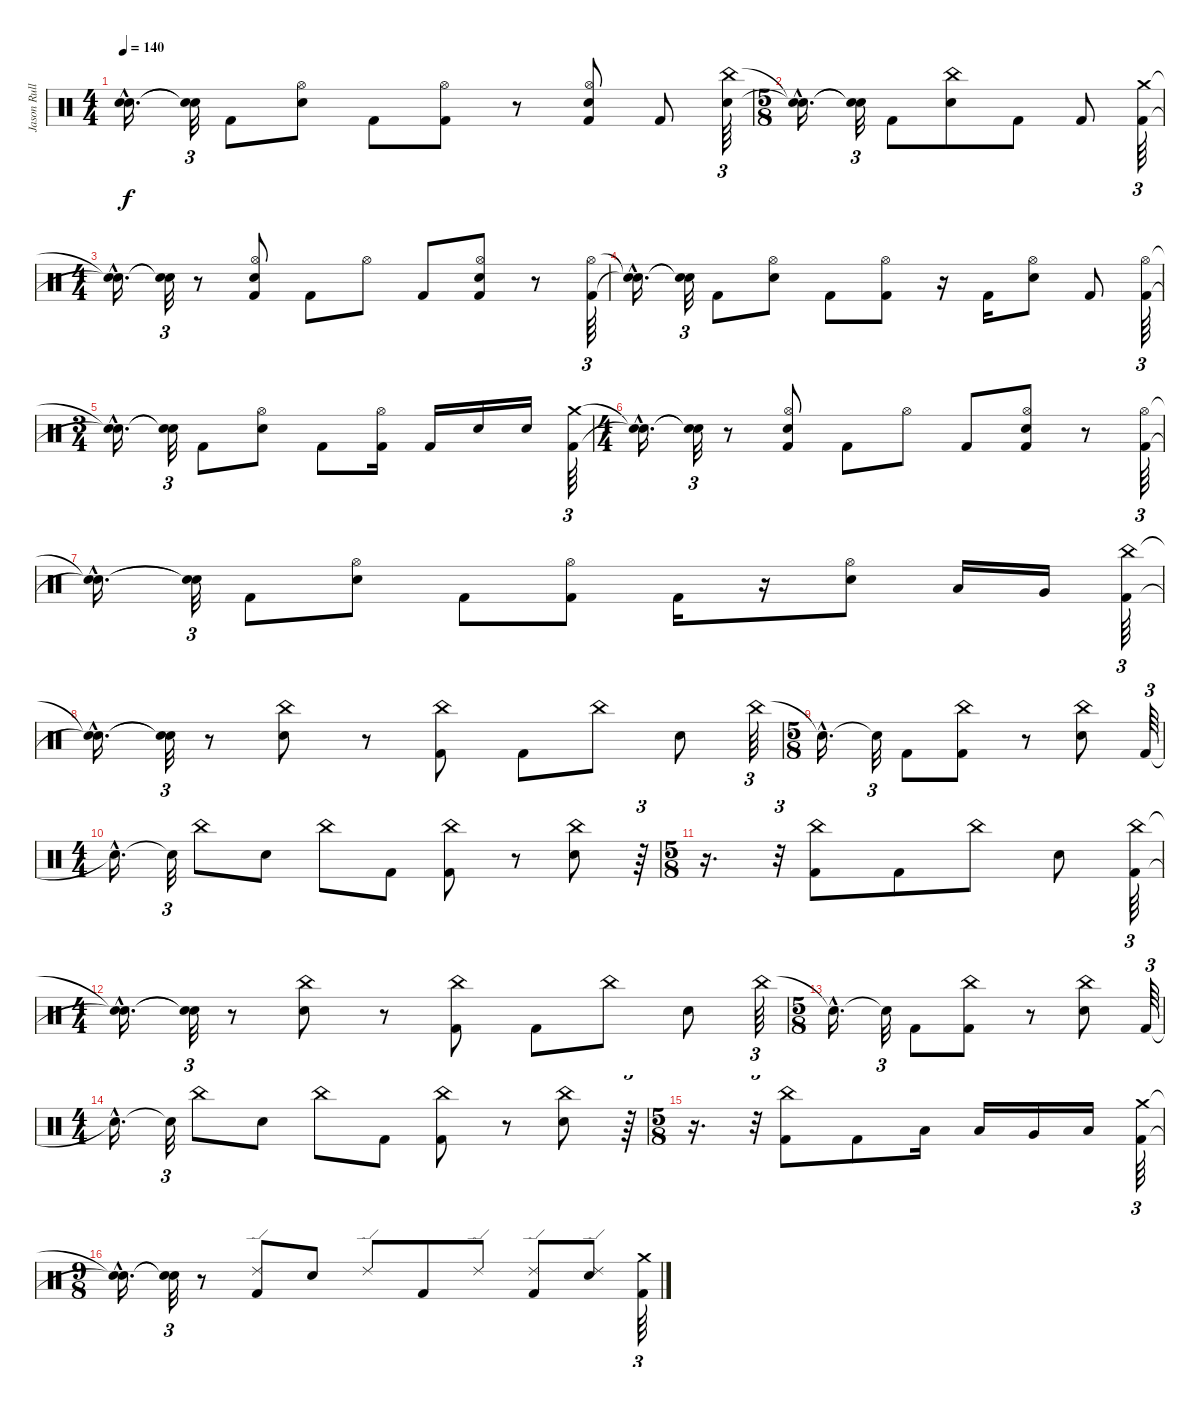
\track ("Jason Rullo" "Jason Rull") {instrument percussion}
\staff {score}
\articulation defaults
\ts (4 4)
\tempo 140
\clef neutral
\ks c
("Snare (hit)"{hac t} "Snare (hit)"{hac t}).16{d dy f} ("Snare (hit)"{t} "Snare (hit)"{t}).32{tu (3 2)} "Kick (hit) 2".8 ("Hi-Hat (open)" "Electric Snare (hit)").8 "Kick (hit) 2".8 ("Hi-Hat (open)" "Kick (hit) 2").8 r.8 ("Hi-Hat (open)" "Electric Snare (hit)" "Kick (hit) 2").8 "Kick (hit) 2".8 ("China (hit)" "Electric Snare (hit)").64{tu (3 2)} |
\ts (5 8)
("Snare (hit)"{hac t} "Snare (hit)"{hac t}).16{d} ("Snare (hit)"{t} "Snare (hit)"{t}).32{tu (3 2)} "Kick (hit) 2".8 ("China (hit)" "Electric Snare (hit)").8 "Kick (hit) 2".8 "Kick (hit) 2".8 ("Crash medium (hit)" "Kick (hit) 2").64{tu (3 2)} |
\ts (4 4)
("Snare (hit)"{hac t} "Snare (hit)"{hac t}).16{d} ("Snare (hit)"{t} "Snare (hit)"{t}).32{tu (3 2)} r.8 ("Hi-Hat (open)" "Electric Snare (hit)" "Kick (hit) 2").8 "Kick (hit) 2".8 "Hi-Hat (open)".8 "Kick (hit) 2".8 ("Hi-Hat (open)" "Kick (hit) 2" "Electric Snare (hit)").8 r.8 ("Hi-Hat (open)" "Kick (hit) 2").64{tu (3 2)} |
("Snare (hit)"{hac t} "Snare (hit)"{hac t}).16{d} ("Snare (hit)"{t} "Snare (hit)"{t}).32{tu (3 2)} "Kick (hit) 2".8 ("Hi-Hat (open)" "Electric Snare (hit)").8 "Kick (hit) 2".8 ("Hi-Hat (open)" "Kick (hit) 2").8 r.16 "Kick (hit) 2".16 ("Hi-Hat (open)" "Electric Snare (hit)").8 "Kick (hit) 2".8 ("Hi-Hat (open)" "Kick (hit) 2").64{tu (3 2)} |
\ts (3 4)
("Snare (hit)"{hac t} "Snare (hit)"{hac t}).16{d} ("Snare (hit)"{t} "Snare (hit)"{t}).32{tu (3 2)} "Kick (hit) 2".8 ("Hi-Hat (open)" "Electric Snare (hit)").8 "Kick (hit) 2".8 ("Hi-Hat (open)" "Kick (hit) 2").16 "Kick (hit) 2".16 "Electric Snare (hit)".16 "Electric Snare (hit)".16 ("Crash medium (hit)" "Kick (hit) 2").64{tu (3 2)} |
\ts (4 4)
("Snare (hit)"{hac t} "Snare (hit)"{hac t}).16{d} ("Snare (hit)"{t} "Snare (hit)"{t}).32{tu (3 2)} r.8 ("Hi-Hat (open)" "Electric Snare (hit)" "Kick (hit) 2").8 "Kick (hit) 2".8 "Hi-Hat (open)".8 "Kick (hit) 2".8 ("Hi-Hat (open)" "Kick (hit) 2" "Electric Snare (hit)").8 r.8 ("Hi-Hat (open)" "Kick (hit) 2").64{tu (3 2)} |
("Snare (hit)"{hac t} "Snare (hit)"{hac t}).16{d} ("Snare (hit)"{t} "Snare (hit)"{t}).32{tu (3 2)} "Kick (hit) 2".8 ("Hi-Hat (open)" "Electric Snare (hit)").8 "Kick (hit) 2".8 ("Hi-Hat (open)" "Kick (hit) 2").8 "Kick (hit) 2".16 r.16 ("Hi-Hat (open)" "Electric Snare (hit)").8 "Low Tom (hit)".16 "Very Low Tom (hit)".16 ("China (hit)" "Kick (hit) 2").64{tu (3 2)} |
("Snare (hit)"{hac t} "Snare (hit)"{hac t}).16{d} ("Snare (hit)"{t} "Snare (hit)"{t}).32{tu (3 2)} r.8 ("China (hit)" "Electric Snare (hit)").8 r.8 ("China (hit)" "Kick (hit) 2").8 "Kick (hit) 2".8 "China (hit)".8 "Electric Snare (hit)".8 "China (hit)".64{tu (3 2)} |
\ts (5 8)
"Snare (hit)"{hac t}.16{d} "Snare (hit)"{t}.32{tu (3 2)} "Kick (hit) 2".8 ("China (hit)" "Kick (hit) 2").8 r.8 ("China (hit)" "Electric Snare (hit)").8 "Kick (hit) 2".64{tu (3 2)} |
\ts (4 4)
"Snare (hit)"{hac t}.16{d} "Snare (hit)"{t}.32{tu (3 2)} "China (hit)".8 "Electric Snare (hit)".8 "China (hit)".8 "Kick (hit) 2".8 ("China (hit)" "Kick (hit) 2").8 r.8 ("China (hit)" "Electric Snare (hit)").8 r.64{tu (3 2)} |
\ts (5 8)
r.16{d} r.32{tu (3 2)} ("China (hit)" "Kick (hit) 2").8 "Kick (hit) 2".8 "China (hit)".8 "Electric Snare (hit)".8 ("China (hit)" "Kick (hit) 2").64{tu (3 2)} |
\ts (4 4)
("Snare (hit)"{hac t} "Snare (hit)"{hac t}).16{d} ("Snare (hit)"{t} "Snare (hit)"{t}).32{tu (3 2)} r.8 ("China (hit)" "Electric Snare (hit)").8 r.8 ("China (hit)" "Kick (hit) 2").8 "Kick (hit) 2".8 "China (hit)".8 "Electric Snare (hit)".8 "China (hit)".64{tu (3 2)} |
\ts (5 8)
"Snare (hit)"{hac t}.16{d} "Snare (hit)"{t}.32{tu (3 2)} "Kick (hit) 2".8 ("China (hit)" "Kick (hit) 2").8 r.8 ("China (hit)" "Electric Snare (hit)").8 "Kick (hit) 2".64{tu (3 2)} |
\ts (4 4)
"Snare (hit)"{hac t}.16{d} "Snare (hit)"{t}.32{tu (3 2)} "China (hit)".8 "Electric Snare (hit)".8 "China (hit)".8 "Kick (hit) 2".8 ("China (hit)" "Kick (hit) 2").8 r.8 ("China (hit)" "Electric Snare (hit)").8 r.64{tu (3 2)} |
\ts (5 8)
r.16{d} r.32{tu (3 2)} ("China (hit)" "Kick (hit) 2").8 "Kick (hit) 2".8 "Low Tom (hit)".16 "Low Tom (hit)".16 "Very Low Tom (hit)".16 "Low Floor Tom (hit)".16 ("Kick (hit) 2" "Crash medium (hit)").64{tu (3 2)} |
\ts (9 8)
("Snare (hit)"{hac t} "Snare (hit)"{hac t}).16{d} ("Snare (hit)"{t} "Snare (hit)"{t}).32{tu (3 2)} r.8 ("Kick (hit) 2" "Ride (edge) 2").8 "Electric Snare (hit)".8 "Ride (edge) 2".8 "Kick (hit) 2".8 "Ride (edge) 2".8 ("Kick (hit) 2" "Ride (edge) 2").8 ("Electric Snare (hit)" "Ride (edge) 2").8 ("Kick (hit) 2" "Crash medium (hit)").64{tu (3 2)}
